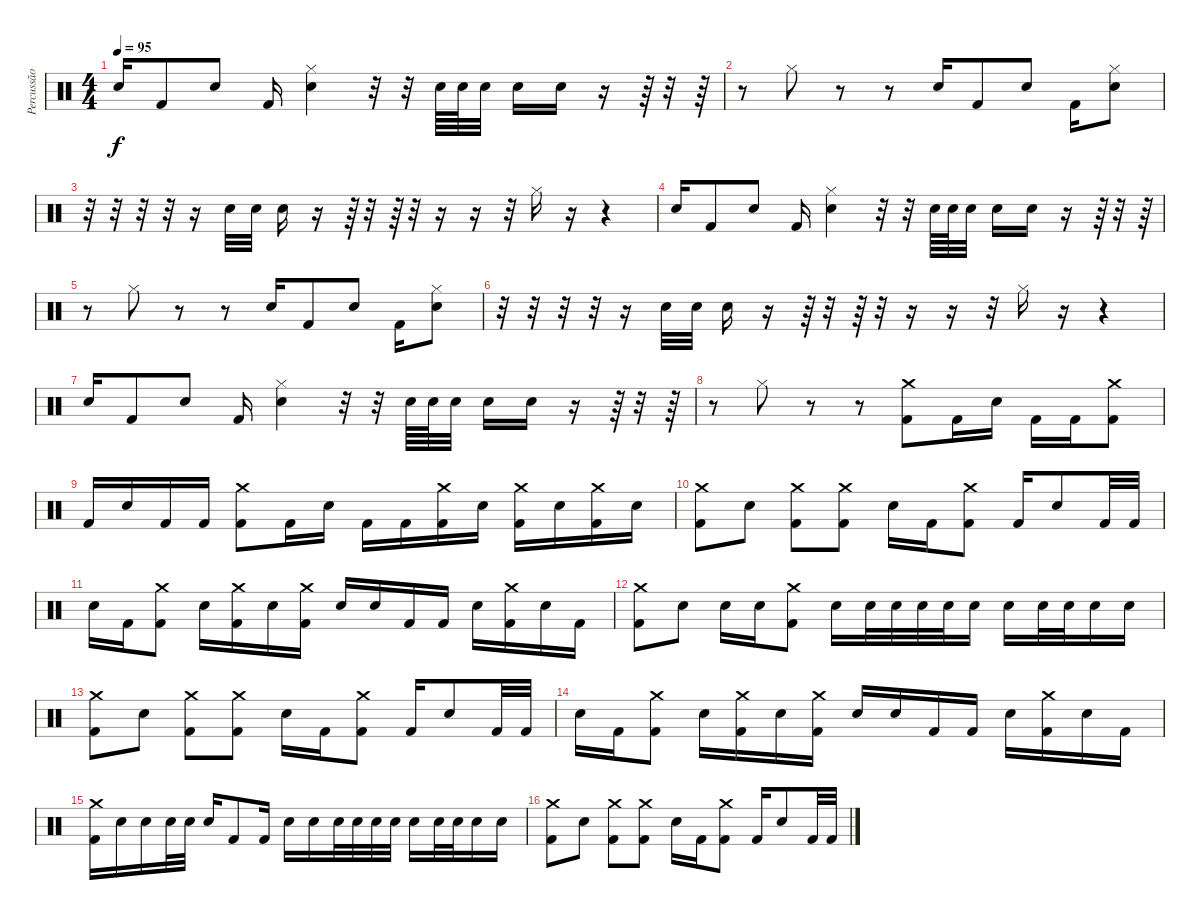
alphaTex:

\track ("Percussão" "Percussão") {instrument percussion}
\staff {score}
\articulation defaults
\ts (4 4)
\tempo 95
\clef neutral
\ks c "Snare (hit) 2".16{dy f volume 16} "Kick (hit) 2".8 "Electric Snare (hit)".8 "Kick (hit) 2".16
("Electric Snare (hit)" "Hi-Hat (closed)").4 r.32 r.32 "Snare (hit) 2".64 "Snare (hit) 2".64 "Snare (hit) 2".32 "Electric Snare (hit)".16 "Electric Snare (hit)".16 r.16 r.64 r.32 r.64 |
r.8 "Hi-Hat (closed)".8 r.8 r.8 "Snare (hit) 2".16{volume 16} "Kick (hit) 2".8 "Electric Snare (hit)".8 "Kick (hit) 2".16 ("Electric Snare (hit)" "Hi-Hat (closed)").8 |
r.32 r.32 r.32 r.32 r.16 "Snare (hit) 2".32 "Snare (hit) 2".32 "Electric Snare (hit)".16 r.16 r.64 r.32 r.64 r.32 r.16 r.16 r.32 "Hi-Hat (closed)".16 r.16 r.4 |
"Snare (hit) 2".16{volume 16} "Kick (hit) 2".8 "Electric Snare (hit)".8 "Kick (hit) 2".16 ("Electric Snare (hit)" "Hi-Hat (closed)").4 r.32 r.32 "Snare (hit) 2".64 "Snare (hit) 2".64 "Snare (hit) 2".32 "Electric Snare (hit)".16 "Electric Snare (hit)".16 r.16 r.64 r.32 r.64 |
r.8 "Hi-Hat (closed)".8 r.8 r.8 "Snare (hit) 2".16{volume 16} "Kick (hit) 2".8 "Electric Snare (hit)".8 "Kick (hit) 2".16 ("Electric Snare (hit)" "Hi-Hat (closed)").8 |
r.32 r.32 r.32 r.32 r.16 "Snare (hit) 2".32 "Snare (hit) 2".32 "Electric Snare (hit)".16 r.16 r.64 r.32 r.64 r.32 r.16 r.16 r.32 "Hi-Hat (closed)".16 r.16 r.4 |
"Snare (hit) 2".16{volume 16} "Kick (hit) 2".8 "Electric Snare (hit)".8 "Kick (hit) 2".16 ("Electric Snare (hit)" "Hi-Hat (closed)").4 r.32 r.32 "Snare (hit) 2".64 "Snare (hit) 2".64 "Snare (hit) 2".32 "Electric Snare (hit)".16 "Electric Snare (hit)".16 r.16 r.64 r.32 r.64 |
r.8 "Hi-Hat (closed)".8 r.8 r.8 ("Kick (hit) 2" "Crash medium (hit)").8{volume 16} "Kick (hit) 2".16 "Electric Snare (hit)".16 "Kick (hit) 2".16 "Kick (hit) 2".16 ("Kick (hit) 2" "Crash medium (hit)").8 |
"Kick (hit) 2".16 "Electric Snare (hit)".16 "Kick (hit) 2".16 "Kick (hit) 2".16 ("Kick (hit) 2" "Crash medium (hit)").8 "Kick (hit) 2".16 "Electric Snare (hit)".16 "Kick (hit) 2".16 "Kick (hit) 2".16 ("Kick (hit) 2" "Crash medium (hit)").16 "Electric Snare (hit)".16 ("Kick (hit) 2" "Crash medium (hit)").16 "Electric Snare (hit)".16 ("Kick (hit) 2" "Crash medium (hit)").16 "Electric Snare (hit)".16 |
("Kick (hit) 2" "Crash medium (hit)").8 "Electric Snare (hit)".8 ("Kick (hit) 2" "Crash medium (hit)").8 ("Kick (hit) 2" "Crash medium (hit)").8 "Electric Snare (hit)".16 "Kick (hit) 2".16 ("Kick (hit) 2" "Crash medium (hit)").8 "Kick (hit) 2".16 "Electric Snare (hit)".8 "Kick (hit) 2".32 "Kick (hit) 2".32 |
"Electric Snare (hit)".16 "Kick (hit) 2".16 ("Kick (hit) 2" "Crash medium (hit)").8 "Electric Snare (hit)".16 ("Kick (hit) 2" "Crash medium (hit)").16 "Electric Snare (hit)".16 ("Kick (hit) 2" "Crash medium (hit)").16 "Electric Snare (hit)".16 "Electric Snare (hit)".16 "Kick (hit) 2".16 "Kick (hit) 2".16 "Electric Snare (hit)".16 ("Kick (hit) 2" "Crash medium (hit)").16 "Electric Snare (hit)".16 "Kick (hit) 2".16 |
("Kick (hit) 2" "Crash medium (hit)").8 "Electric Snare (hit)".8 "Electric Snare (hit)".16 "Electric Snare (hit)".16 ("Kick (hit) 2" "Crash medium (hit)").8 "Electric Snare (hit)".16 "Electric Snare (hit)".32 "Electric Snare (hit)".32 "Snare (hit) 2".32 "Snare (hit) 2".32 "Electric Snare (hit)".16 "Electric Snare (hit)".16 "Snare (hit) 2".32 "Snare (hit) 2".32 "Snare (hit) 2".16 "Electric Snare (hit)".16 |
("Kick (hit) 2" "Crash medium (hit)").8 "Electric Snare (hit)".8 ("Kick (hit) 2" "Crash medium (hit)").8 ("Kick (hit) 2" "Crash medium (hit)").8 "Electric Snare (hit)".16 "Kick (hit) 2".16 ("Kick (hit) 2" "Crash medium (hit)").8 "Kick (hit) 2".16 "Electric Snare (hit)".8 "Kick (hit) 2".32 "Kick (hit) 2".32 |
"Electric Snare (hit)".16 "Kick (hit) 2".16 ("Kick (hit) 2" "Crash medium (hit)").8 "Electric Snare (hit)".16 ("Kick (hit) 2" "Crash medium (hit)").16 "Electric Snare (hit)".16 ("Kick (hit) 2" "Crash medium (hit)").16 "Electric Snare (hit)".16 "Electric Snare (hit)".16 "Kick (hit) 2".16 "Kick (hit) 2".16 "Electric Snare (hit)".16 ("Kick (hit) 2" "Crash medium (hit)").16 "Electric Snare (hit)".16 "Kick (hit) 2".16 |
("Kick (hit) 2" "Crash medium (hit)").16 "Electric Snare (hit)".16 "Electric Snare (hit)".16 "Snare (hit) 2".32 "Snare (hit) 2".32 "Snare (hit) 2".16 "Kick (hit) 2".8 "Kick (hit) 2".16 "Electric Snare (hit)".16 "Electric Snare (hit)".16 "Snare (hit) 2".32 "Snare (hit) 2".32 "Snare (hit) 2".32 "Snare (hit) 2".32 "Electric Snare (hit)".16 "Snare (hit) 2".32 "Snare (hit) 2".32 "Snare (hit) 2".16 "Electric Snare (hit)".16 |
("Kick (hit) 2" "Crash medium (hit)").8 "Electric Snare (hit)".8 ("Kick (hit) 2" "Crash medium (hit)").8 ("Kick (hit) 2" "Crash medium (hit)").8 "Electric Snare (hit)".16 "Kick (hit) 2".16 ("Kick (hit) 2" "Crash medium (hit)").8 "Kick (hit) 2".16 "Electric Snare (hit)".8 "Kick (hit) 2".32 "Kick (hit) 2".32
